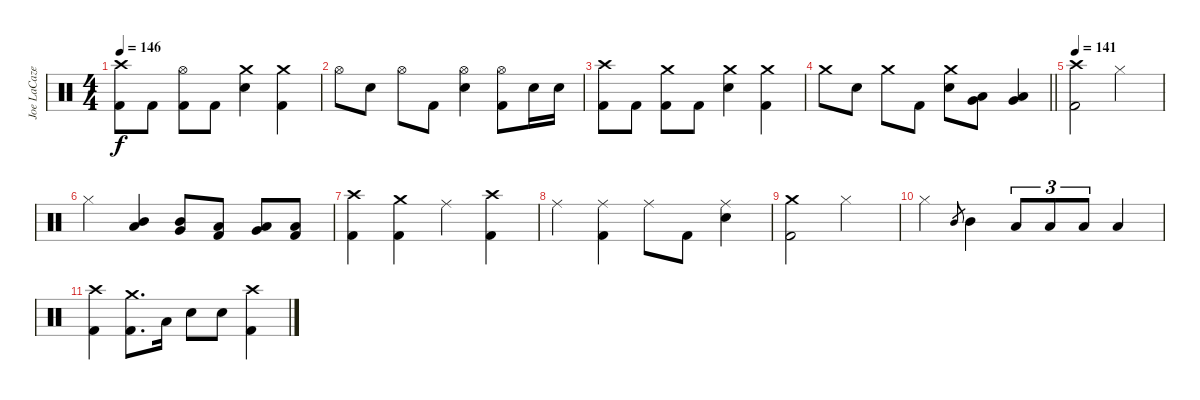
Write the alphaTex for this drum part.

\track ("Joe LaCaze" "Joe LaCaze") {instrument percussion}
\staff {score}
\articulation defaults
\ts (4 4)
\tempo 146
\clef neutral
\ks c
("Crash high (hit)" "Kick (hit) 2").8{dy f} "Kick (hit) 2".8 ("Hi-Hat (open)" "Kick (hit) 2").8 "Kick (hit) 2".8 ("Crash medium (hit)" "Electric Snare (hit)").4 ("Crash medium (hit)" "Kick (hit) 2").4 |
"Hi-Hat (open)".8 "Electric Snare (hit)".8 "Hi-Hat (open)".8 "Kick (hit) 2".8 ("Hi-Hat (open)" "Electric Snare (hit)").4 ("Hi-Hat (open)" "Kick (hit) 2").8 "Electric Snare (hit)".16 "Electric Snare (hit)".16 |
("Crash high (hit)" "Kick (hit) 2").8 "Kick (hit) 2".8 ("Crash medium (hit)" "Kick (hit) 2").8 "Kick (hit) 2".8 ("Crash medium (hit)" "Electric Snare (hit)").4 ("Crash medium (hit)" "Kick (hit) 2").4 |
\barLineRight lightlight "Crash medium (hit)".8 "Electric Snare (hit)".8 "Crash medium (hit)".8 "Kick (hit) 2".8
("Crash medium (hit)" "Electric Snare (hit)").8 ("Very Low Tom (hit)" "Low Floor Tom (hit)").8 ("Very Low Tom (hit)" "Low Floor Tom (hit)").4 |
\section ("" "")
\tempo 141
("Crash high (hit)" "Kick (hit) 2").2 "Hi-Hat (closed)".2 |
"Hi-Hat (closed)".4 ("Mid Tom (hit)" "Low Tom (hit)").4 ("Mid Tom (hit)" "Very Low Tom (hit)").8 ("Low Floor Tom (hit)" "Kick (hit) 2").8 ("Low Tom (hit)" "Very Low Tom (hit)").8 ("Low Floor Tom (hit)" "Kick (hit) 2").8 |
("Crash high (hit)" "Kick (hit) 2").4 ("Crash medium (hit)" "Kick (hit) 2").4 "Ride (middle)".4 ("Crash high (hit)" "Kick (hit) 2").4 |
"Ride (middle)".4 ("Ride (middle)" "Kick (hit) 2").4 "Ride (middle)".8 "Kick (hit) 2".8 ("Ride (middle)" "Electric Snare (hit)").4 |
("Crash medium (hit)" "Kick (hit) 2").2 "Hi-Hat (closed)".2 |
"Hi-Hat (closed)".4 "Mid Tom (hit)".8{gr} "Mid Tom (hit)".4 "Low Tom (hit)".8{tu (3 2)} "Low Tom (hit)".8{tu (3 2)} "Low Tom (hit)".8{tu (3 2)} "Low Tom (hit)".4 |
("Crash high (hit)" "Kick (hit) 2").4 ("Crash medium (hit)" "Kick (hit) 2").8{d} "Low Tom (hit)".16 "Electric Snare (hit)".8 "Electric Snare (hit)".8 ("Crash high (hit)" "Kick (hit) 2").4
